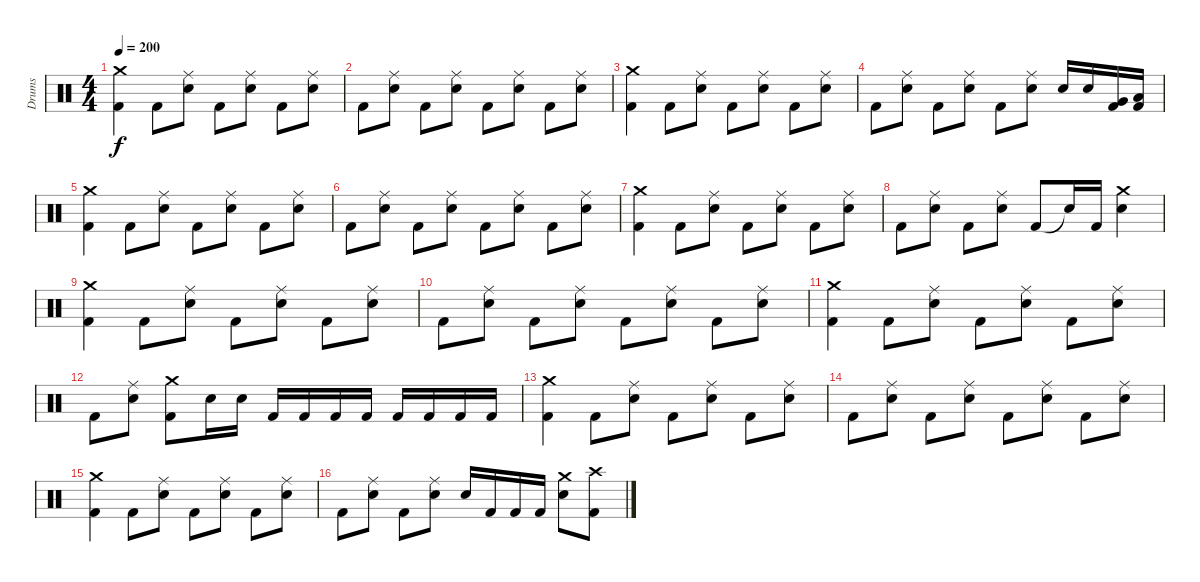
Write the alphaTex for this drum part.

\track ("Drums" "Drums") {instrument percussion}
\staff {score}
\articulation defaults
\ts (4 4)
\section ("" "")
\tempo 200
\clef neutral
\ks c
("Crash medium (hit)" "Kick (hit) 2").4{dy f} "Kick (hit) 2".8 ("Ride (middle)" "Electric Snare (hit)").8 "Kick (hit) 2".8 ("Ride (middle)" "Electric Snare (hit)").8 "Kick (hit) 2".8 ("Ride (middle)" "Electric Snare (hit)").8 |
"Kick (hit) 2".8 ("Ride (middle)" "Electric Snare (hit)").8 "Kick (hit) 2".8 ("Ride (middle)" "Electric Snare (hit)").8 "Kick (hit) 2".8 ("Ride (middle)" "Electric Snare (hit)").8 "Kick (hit) 2".8 ("Ride (middle)" "Electric Snare (hit)").8 |
("Crash medium (hit)" "Kick (hit) 2").4 "Kick (hit) 2".8 ("Ride (middle)" "Electric Snare (hit)").8 "Kick (hit) 2".8 ("Ride (middle)" "Electric Snare (hit)").8 "Kick (hit) 2".8 ("Ride (middle)" "Electric Snare (hit)").8 |
"Kick (hit) 2".8 ("Ride (middle)" "Electric Snare (hit)").8 "Kick (hit) 2".8 ("Ride (middle)" "Electric Snare (hit)").8 "Kick (hit) 2".8 ("Ride (middle)" "Electric Snare (hit)").8 "Electric Snare (hit)".16 "Electric Snare (hit)".16 ("Very Low Tom (hit)" "Kick (hit) 2").16 ("Low Floor Tom (hit)" "Kick (hit) 2").16 |
("Crash medium (hit)" "Kick (hit) 2").4 "Kick (hit) 2".8 ("Ride (middle)" "Electric Snare (hit)").8 "Kick (hit) 2".8 ("Ride (middle)" "Electric Snare (hit)").8 "Kick (hit) 2".8 ("Ride (middle)" "Electric Snare (hit)").8 |
"Kick (hit) 2".8 ("Ride (middle)" "Electric Snare (hit)").8 "Kick (hit) 2".8 ("Ride (middle)" "Electric Snare (hit)").8 "Kick (hit) 2".8 ("Ride (middle)" "Electric Snare (hit)").8 "Kick (hit) 2".8 ("Ride (middle)" "Electric Snare (hit)").8 |
("Crash medium (hit)" "Kick (hit) 2").4 "Kick (hit) 2".8 ("Ride (middle)" "Electric Snare (hit)").8 "Kick (hit) 2".8 ("Ride (middle)" "Electric Snare (hit)").8 "Kick (hit) 2".8 ("Ride (middle)" "Electric Snare (hit)").8 |
"Kick (hit) 2".8 ("Ride (middle)" "Electric Snare (hit)").8 "Kick (hit) 2".8 ("Ride (middle)" "Electric Snare (hit)").8 "Kick (hit) 2".8 "Snare (hit)"{t}.16 "Kick (hit) 2".16 ("Crash medium (hit)" "Electric Snare (hit)").4 |
\section ("" "")
("Crash medium (hit)" "Kick (hit) 2").4 "Kick (hit) 2".8 ("Ride (middle)" "Electric Snare (hit)").8 "Kick (hit) 2".8 ("Ride (middle)" "Electric Snare (hit)").8 "Kick (hit) 2".8 ("Ride (middle)" "Electric Snare (hit)").8 |
"Kick (hit) 2".8 ("Ride (middle)" "Electric Snare (hit)").8 "Kick (hit) 2".8 ("Ride (middle)" "Electric Snare (hit)").8 "Kick (hit) 2".8 ("Ride (middle)" "Electric Snare (hit)").8 "Kick (hit) 2".8 ("Ride (middle)" "Electric Snare (hit)").8 |
("Crash medium (hit)" "Kick (hit) 2").4 "Kick (hit) 2".8 ("Ride (middle)" "Electric Snare (hit)").8 "Kick (hit) 2".8 ("Ride (middle)" "Electric Snare (hit)").8 "Kick (hit) 2".8 ("Ride (middle)" "Electric Snare (hit)").8 |
"Kick (hit) 2".8 ("Ride (middle)" "Electric Snare (hit)").8 ("Crash medium (hit)" "Kick (hit) 2").8 "Electric Snare (hit)".16 "Electric Snare (hit)".16 "Kick (hit) 2".16 "Kick (hit) 2".16 "Kick (hit) 2".16 "Kick (hit) 2".16 "Kick (hit) 2".16 "Kick (hit) 2".16 "Kick (hit) 2".16 "Kick (hit) 2".16 |
\section ("" "")
("Crash medium (hit)" "Kick (hit) 2").4 "Kick (hit) 2".8 ("Ride (middle)" "Electric Snare (hit)").8 "Kick (hit) 2".8 ("Ride (middle)" "Electric Snare (hit)").8 "Kick (hit) 2".8 ("Ride (middle)" "Electric Snare (hit)").8 |
"Kick (hit) 2".8 ("Ride (middle)" "Electric Snare (hit)").8 "Kick (hit) 2".8 ("Ride (middle)" "Electric Snare (hit)").8 "Kick (hit) 2".8 ("Ride (middle)" "Electric Snare (hit)").8 "Kick (hit) 2".8 ("Ride (middle)" "Electric Snare (hit)").8 |
("Crash medium (hit)" "Kick (hit) 2").4 "Kick (hit) 2".8 ("Ride (middle)" "Electric Snare (hit)").8 "Kick (hit) 2".8 ("Ride (middle)" "Electric Snare (hit)").8 "Kick (hit) 2".8 ("Ride (middle)" "Electric Snare (hit)").8 |
"Kick (hit) 2".8 ("Ride (middle)" "Electric Snare (hit)").8 "Kick (hit) 2".8 ("Ride (middle)" "Electric Snare (hit)").8 "Electric Snare (hit)".16 "Kick (hit) 2".16 "Kick (hit) 2".16 "Kick (hit) 2".16 ("Crash medium (hit)" "Electric Snare (hit)").8 ("Crash high (hit)" "Kick (hit) 2").8
